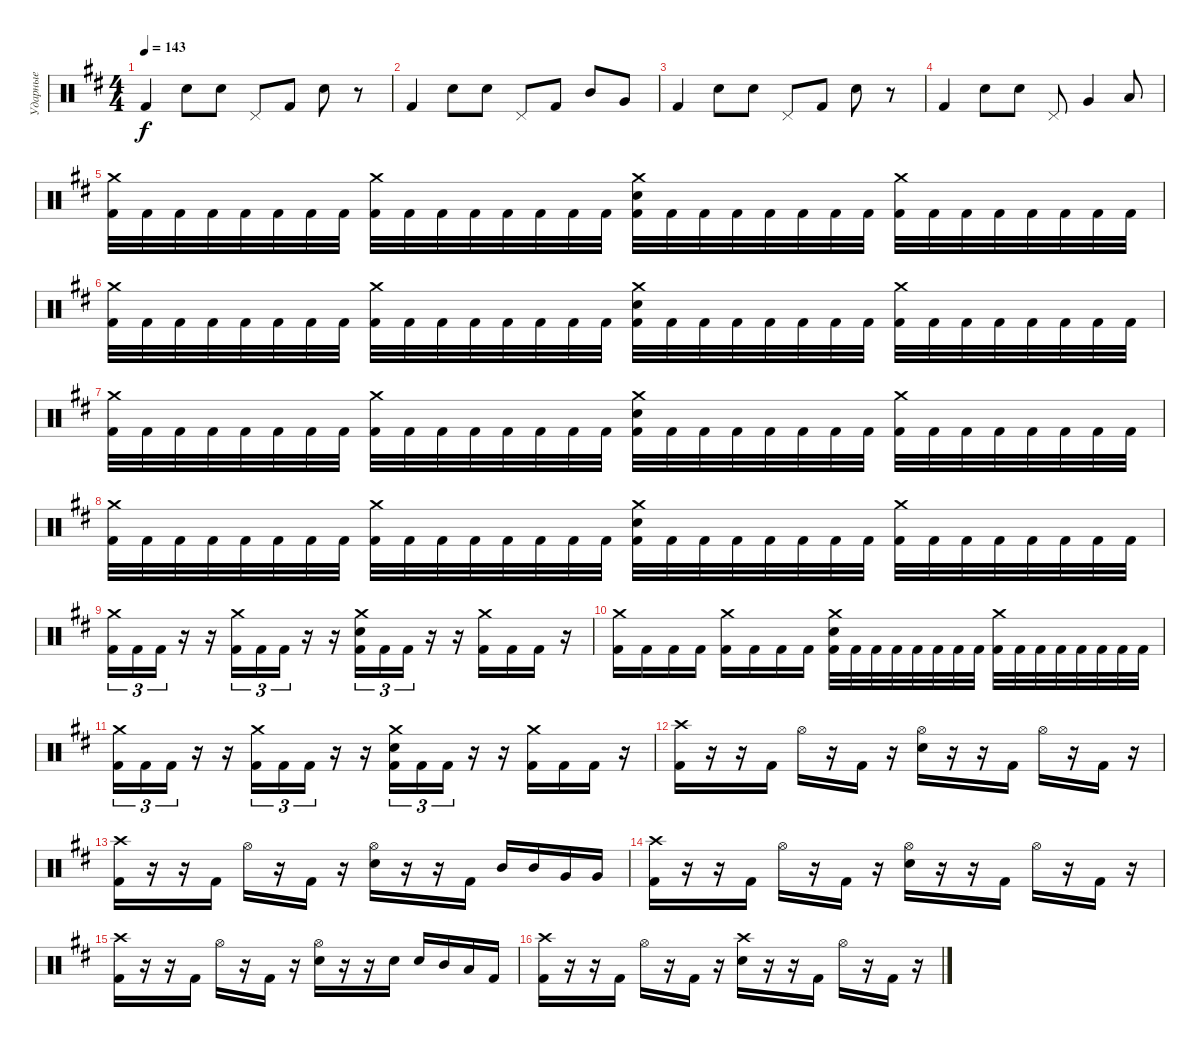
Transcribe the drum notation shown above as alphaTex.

\track ("Ударные" "Ударные") {instrument percussion}
\staff {score}
\articulation defaults
\ts (4 4)
\tempo 143
\clef neutral
\ks bminor "Kick (hit) 2".4{dy f} "Electric Snare (hit)".8 "Electric Snare (hit)".8 "Pedal Hi-Hat (hit)".8 "Kick (hit) 2".8 "Electric Snare (hit)".8
r.8 |
"Kick (hit) 2".4 "Electric Snare (hit)".8 "Electric Snare (hit)".8 "Pedal Hi-Hat (hit)".8 "Kick (hit) 2".8 "Mid Tom (hit)".8 "Very Low Tom (hit)".8 |
"Kick (hit) 2".4 "Electric Snare (hit)".8 "Electric Snare (hit)".8 "Pedal Hi-Hat (hit)".8 "Kick (hit) 2".8 "Electric Snare (hit)".8 r.8 |
"Kick (hit) 2".4 "Electric Snare (hit)".8 "Electric Snare (hit)".8 "Pedal Hi-Hat (hit)".8 "Very Low Tom (hit)".4 "Low Floor Tom (hit)".8 |
("Kick (hit) 2" "Crash medium (hit)").32 "Kick (hit) 2".32 "Kick (hit) 2".32 "Kick (hit) 2".32 "Kick (hit) 2".32 "Kick (hit) 2".32 "Kick (hit) 2".32 "Kick (hit) 2".32 ("Kick (hit) 2" "Crash medium (hit)").32 "Kick (hit) 2".32 "Kick (hit) 2".32 "Kick (hit) 2".32 "Kick (hit) 2".32 "Kick (hit) 2".32 "Kick (hit) 2".32 "Kick (hit) 2".32 ("Kick (hit) 2" "Crash medium (hit)" "Electric Snare (hit)").32 "Kick (hit) 2".32 "Kick (hit) 2".32 "Kick (hit) 2".32 "Kick (hit) 2".32 "Kick (hit) 2".32 "Kick (hit) 2".32 "Kick (hit) 2".32 ("Kick (hit) 2" "Crash medium (hit)").32 "Kick (hit) 2".32 "Kick (hit) 2".32 "Kick (hit) 2".32 "Kick (hit) 2".32 "Kick (hit) 2".32 "Kick (hit) 2".32 "Kick (hit) 2".32 |
("Kick (hit) 2" "Crash medium (hit)").32 "Kick (hit) 2".32 "Kick (hit) 2".32 "Kick (hit) 2".32 "Kick (hit) 2".32 "Kick (hit) 2".32 "Kick (hit) 2".32 "Kick (hit) 2".32 ("Kick (hit) 2" "Crash medium (hit)").32 "Kick (hit) 2".32 "Kick (hit) 2".32 "Kick (hit) 2".32 "Kick (hit) 2".32 "Kick (hit) 2".32 "Kick (hit) 2".32 "Kick (hit) 2".32 ("Kick (hit) 2" "Crash medium (hit)" "Electric Snare (hit)").32 "Kick (hit) 2".32 "Kick (hit) 2".32 "Kick (hit) 2".32 "Kick (hit) 2".32 "Kick (hit) 2".32 "Kick (hit) 2".32 "Kick (hit) 2".32 ("Kick (hit) 2" "Crash medium (hit)").32 "Kick (hit) 2".32 "Kick (hit) 2".32 "Kick (hit) 2".32 "Kick (hit) 2".32 "Kick (hit) 2".32 "Kick (hit) 2".32 "Kick (hit) 2".32 |
("Kick (hit) 2" "Crash medium (hit)").32 "Kick (hit) 2".32 "Kick (hit) 2".32 "Kick (hit) 2".32 "Kick (hit) 2".32 "Kick (hit) 2".32 "Kick (hit) 2".32 "Kick (hit) 2".32 ("Kick (hit) 2" "Crash medium (hit)").32 "Kick (hit) 2".32 "Kick (hit) 2".32 "Kick (hit) 2".32 "Kick (hit) 2".32 "Kick (hit) 2".32 "Kick (hit) 2".32 "Kick (hit) 2".32 ("Kick (hit) 2" "Crash medium (hit)" "Electric Snare (hit)").32 "Kick (hit) 2".32 "Kick (hit) 2".32 "Kick (hit) 2".32 "Kick (hit) 2".32 "Kick (hit) 2".32 "Kick (hit) 2".32 "Kick (hit) 2".32 ("Kick (hit) 2" "Crash medium (hit)").32 "Kick (hit) 2".32 "Kick (hit) 2".32 "Kick (hit) 2".32 "Kick (hit) 2".32 "Kick (hit) 2".32 "Kick (hit) 2".32 "Kick (hit) 2".32 |
("Kick (hit) 2" "Crash medium (hit)").32 "Kick (hit) 2".32 "Kick (hit) 2".32 "Kick (hit) 2".32 "Kick (hit) 2".32 "Kick (hit) 2".32 "Kick (hit) 2".32 "Kick (hit) 2".32 ("Kick (hit) 2" "Crash medium (hit)").32 "Kick (hit) 2".32 "Kick (hit) 2".32 "Kick (hit) 2".32 "Kick (hit) 2".32 "Kick (hit) 2".32 "Kick (hit) 2".32 "Kick (hit) 2".32 ("Kick (hit) 2" "Crash medium (hit)" "Electric Snare (hit)").32 "Kick (hit) 2".32 "Kick (hit) 2".32 "Kick (hit) 2".32 "Kick (hit) 2".32 "Kick (hit) 2".32 "Kick (hit) 2".32 "Kick (hit) 2".32 ("Kick (hit) 2" "Crash medium (hit)").32 "Kick (hit) 2".32 "Kick (hit) 2".32 "Kick (hit) 2".32 "Kick (hit) 2".32 "Kick (hit) 2".32 "Kick (hit) 2".32 "Kick (hit) 2".32 |
("Crash medium (hit)" "Kick (hit) 2").16{tu (3 2)} "Kick (hit) 2".16{tu (3 2)} "Kick (hit) 2".16{tu (3 2)} r.16 r.16 ("Crash medium (hit)" "Kick (hit) 2").16{tu (3 2)} "Kick (hit) 2".16{tu (3 2)} "Kick (hit) 2".16{tu (3 2)} r.16 r.16 ("Crash medium (hit)" "Kick (hit) 2" "Electric Snare (hit)").16{tu (3 2)} "Kick (hit) 2".16{tu (3 2)} "Kick (hit) 2".16{tu (3 2)} r.16 r.16 ("Crash medium (hit)" "Kick (hit) 2").16 "Kick (hit) 2".16 "Kick (hit) 2".16 r.16 |
("Kick (hit) 2" "Crash medium (hit)").16 "Kick (hit) 2".16 "Kick (hit) 2".16 "Kick (hit) 2".16 ("Kick (hit) 2" "Crash medium (hit)").16 "Kick (hit) 2".16 "Kick (hit) 2".16 "Kick (hit) 2".16 ("Kick (hit) 2" "Crash medium (hit)" "Electric Snare (hit)").32 "Kick (hit) 2".32 "Kick (hit) 2".32 "Kick (hit) 2".32 "Kick (hit) 2".32 "Kick (hit) 2".32 "Kick (hit) 2".32 "Kick (hit) 2".32 ("Kick (hit) 2" "Crash medium (hit)").32 "Kick (hit) 2".32 "Kick (hit) 2".32 "Kick (hit) 2".32 "Kick (hit) 2".32 "Kick (hit) 2".32 "Kick (hit) 2".32 "Kick (hit) 2".32 |
("Crash medium (hit)" "Kick (hit) 2").16{tu (3 2)} "Kick (hit) 2".16{tu (3 2)} "Kick (hit) 2".16{tu (3 2)} r.16 r.16 ("Crash medium (hit)" "Kick (hit) 2").16{tu (3 2)} "Kick (hit) 2".16{tu (3 2)} "Kick (hit) 2".16{tu (3 2)} r.16 r.16 ("Crash medium (hit)" "Kick (hit) 2" "Electric Snare (hit)").16{tu (3 2)} "Kick (hit) 2".16{tu (3 2)} "Kick (hit) 2".16{tu (3 2)} r.16 r.16 ("Crash medium (hit)" "Kick (hit) 2").16 "Kick (hit) 2".16 "Kick (hit) 2".16 r.16 |
("Kick (hit) 2" "Crash high (hit)").16 r.16 r.16 "Kick (hit) 2".16 "Hi-Hat (open)".16 r.16 "Kick (hit) 2".16 r.16 ("Hi-Hat (open)" "Electric Snare (hit)").16 r.16 r.16 "Kick (hit) 2".16 "Hi-Hat (open)".16 r.16 "Kick (hit) 2".16 r.16 |
("Kick (hit) 2" "Crash high (hit)").16 r.16 r.16 "Kick (hit) 2".16 "Hi-Hat (open)".16 r.16 "Kick (hit) 2".16 r.16 ("Hi-Hat (open)" "Electric Snare (hit)").16 r.16 r.16 "Kick (hit) 2".16 "Mid Tom (hit)".16 "Mid Tom (hit)".16 "Very Low Tom (hit)".16 "Very Low Tom (hit)".16 |
("Kick (hit) 2" "Crash high (hit)").16 r.16 r.16 "Kick (hit) 2".16 "Hi-Hat (open)".16 r.16 "Kick (hit) 2".16 r.16 ("Hi-Hat (open)" "Electric Snare (hit)").16 r.16 r.16 "Kick (hit) 2".16 "Hi-Hat (open)".16 r.16 "Kick (hit) 2".16 r.16 |
("Kick (hit) 2" "Crash high (hit)").16 r.16 r.16 "Kick (hit) 2".16 "Hi-Hat (open)".16 r.16 "Kick (hit) 2".16 r.16 ("Hi-Hat (open)" "Electric Snare (hit)").16 r.16 r.16 "Electric Snare (hit)".16 "Electric Snare (hit)".16 "Mid Tom (hit)".16 "Low Tom (hit)".16 "Kick (hit) 2".16 |
("Kick (hit) 2" "Crash high (hit)").16 r.16 r.16 "Kick (hit) 2".16 "Hi-Hat (open)".16 r.16 "Kick (hit) 2".16 r.16 ("Crash high (hit)" "Electric Snare (hit)").16 r.16 r.16 "Kick (hit) 2".16 "Hi-Hat (open)".16 r.16 "Kick (hit) 2".16 r.16
